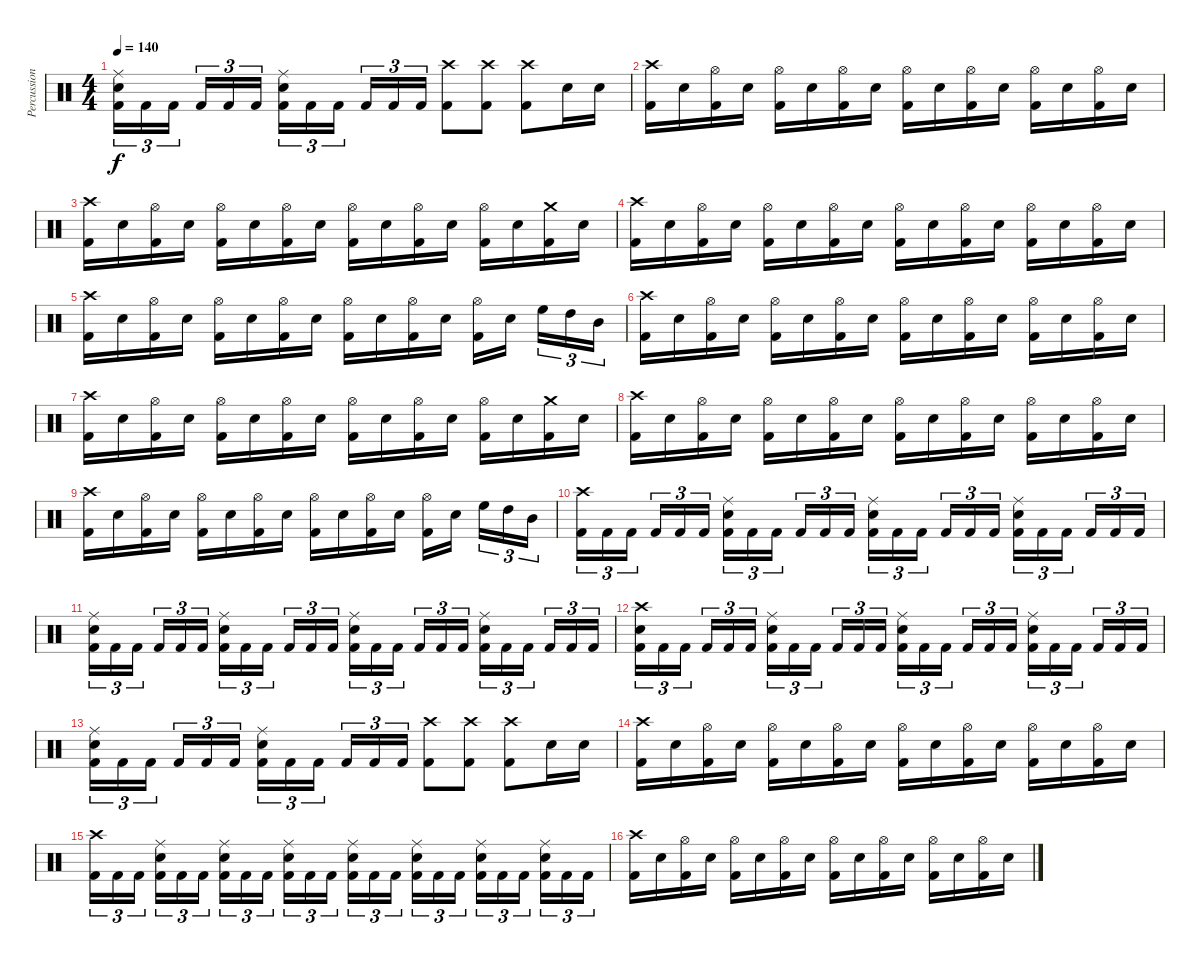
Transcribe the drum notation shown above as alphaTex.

\track ("Percussion" "Percussion") {instrument percussion}
\staff {score}
\articulation defaults
\ts (4 4)
\tempo 140
\clef neutral
\ks c
("Ride (middle)" "Electric Snare (hit)" "Kick (hit) 2").16{tu (3 2) dy f} "Kick (hit) 2".16{tu (3 2)} "Kick (hit) 2".16{tu (3 2)} "Kick (hit) 2".16{tu (3 2)} "Kick (hit) 2".16{tu (3 2)} "Kick (hit) 2".16{tu (3 2)} ("Ride (middle)" "Electric Snare (hit)" "Kick (hit) 2").16{tu (3 2)} "Kick (hit) 2".16{tu (3 2)} "Kick (hit) 2".16{tu (3 2)} "Kick (hit) 2".16{tu (3 2)} "Kick (hit) 2".16{tu (3 2)} "Kick (hit) 2".16{tu (3 2)} ("Crash high (hit)" "Kick (hit) 2").8 ("Crash high (hit)" "Kick (hit) 2").8 ("Crash high (hit)" "Kick (hit) 2").8 "Electric Snare (hit)".16 "Electric Snare (hit)".16 |
("Crash high (hit)" "Kick (hit) 2").16 "Electric Snare (hit)".16 ("Hi-Hat (open)" "Kick (hit) 2").16 "Electric Snare (hit)".16 ("Hi-Hat (open)" "Kick (hit) 2").16 "Electric Snare (hit)".16 ("Hi-Hat (open)" "Kick (hit) 2").16 "Electric Snare (hit)".16 ("Hi-Hat (open)" "Kick (hit) 2").16 "Electric Snare (hit)".16 ("Hi-Hat (open)" "Kick (hit) 2").16 "Electric Snare (hit)".16 ("Hi-Hat (open)" "Kick (hit) 2").16 "Electric Snare (hit)".16 ("Hi-Hat (open)" "Kick (hit) 2").16 "Electric Snare (hit)".16 |
("Crash high (hit)" "Kick (hit) 2").16 "Electric Snare (hit)".16 ("Hi-Hat (open)" "Kick (hit) 2").16 "Electric Snare (hit)".16 ("Hi-Hat (open)" "Kick (hit) 2").16 "Electric Snare (hit)".16 ("Hi-Hat (open)" "Kick (hit) 2").16 "Electric Snare (hit)".16 ("Hi-Hat (open)" "Kick (hit) 2").16 "Electric Snare (hit)".16 ("Hi-Hat (open)" "Kick (hit) 2").16 "Electric Snare (hit)".16 ("Hi-Hat (open)" "Kick (hit) 2").16 "Electric Snare (hit)".16 ("Crash medium (hit)" "Kick (hit) 2").16 "Electric Snare (hit)".16 |
("Crash high (hit)" "Kick (hit) 2").16 "Electric Snare (hit)".16 ("Hi-Hat (open)" "Kick (hit) 2").16 "Electric Snare (hit)".16 ("Hi-Hat (open)" "Kick (hit) 2").16 "Electric Snare (hit)".16 ("Hi-Hat (open)" "Kick (hit) 2").16 "Electric Snare (hit)".16 ("Hi-Hat (open)" "Kick (hit) 2").16 "Electric Snare (hit)".16 ("Hi-Hat (open)" "Kick (hit) 2").16 "Electric Snare (hit)".16 ("Hi-Hat (open)" "Kick (hit) 2").16 "Electric Snare (hit)".16 ("Hi-Hat (open)" "Kick (hit) 2").16 "Electric Snare (hit)".16 |
("Crash high (hit)" "Kick (hit) 2").16 "Electric Snare (hit)".16 ("Hi-Hat (open)" "Kick (hit) 2").16 "Electric Snare (hit)".16 ("Hi-Hat (open)" "Kick (hit) 2").16 "Electric Snare (hit)".16 ("Hi-Hat (open)" "Kick (hit) 2").16 "Electric Snare (hit)".16 ("Hi-Hat (open)" "Kick (hit) 2").16 "Electric Snare (hit)".16 ("Hi-Hat (open)" "Kick (hit) 2").16 "Electric Snare (hit)".16 ("Hi-Hat (open)" "Kick (hit) 2").16 "Electric Snare (hit)".16 "High Floor Tom (hit)".16{tu (3 2)} "High Tom (hit)".16{tu (3 2)} "Mid Tom (hit)".16{tu (3 2)} |
("Crash high (hit)" "Kick (hit) 2").16 "Electric Snare (hit)".16 ("Hi-Hat (open)" "Kick (hit) 2").16 "Electric Snare (hit)".16 ("Hi-Hat (open)" "Kick (hit) 2").16 "Electric Snare (hit)".16 ("Hi-Hat (open)" "Kick (hit) 2").16 "Electric Snare (hit)".16 ("Hi-Hat (open)" "Kick (hit) 2").16 "Electric Snare (hit)".16 ("Hi-Hat (open)" "Kick (hit) 2").16 "Electric Snare (hit)".16 ("Hi-Hat (open)" "Kick (hit) 2").16 "Electric Snare (hit)".16 ("Hi-Hat (open)" "Kick (hit) 2").16 "Electric Snare (hit)".16 |
("Crash high (hit)" "Kick (hit) 2").16 "Electric Snare (hit)".16 ("Hi-Hat (open)" "Kick (hit) 2").16 "Electric Snare (hit)".16 ("Hi-Hat (open)" "Kick (hit) 2").16 "Electric Snare (hit)".16 ("Hi-Hat (open)" "Kick (hit) 2").16 "Electric Snare (hit)".16 ("Hi-Hat (open)" "Kick (hit) 2").16 "Electric Snare (hit)".16 ("Hi-Hat (open)" "Kick (hit) 2").16 "Electric Snare (hit)".16 ("Hi-Hat (open)" "Kick (hit) 2").16 "Electric Snare (hit)".16 ("Crash medium (hit)" "Kick (hit) 2").16 "Electric Snare (hit)".16 |
("Crash high (hit)" "Kick (hit) 2").16 "Electric Snare (hit)".16 ("Hi-Hat (open)" "Kick (hit) 2").16 "Electric Snare (hit)".16 ("Hi-Hat (open)" "Kick (hit) 2").16 "Electric Snare (hit)".16 ("Hi-Hat (open)" "Kick (hit) 2").16 "Electric Snare (hit)".16 ("Hi-Hat (open)" "Kick (hit) 2").16 "Electric Snare (hit)".16 ("Hi-Hat (open)" "Kick (hit) 2").16 "Electric Snare (hit)".16 ("Hi-Hat (open)" "Kick (hit) 2").16 "Electric Snare (hit)".16 ("Hi-Hat (open)" "Kick (hit) 2").16 "Electric Snare (hit)".16 |
("Crash high (hit)" "Kick (hit) 2").16 "Electric Snare (hit)".16 ("Hi-Hat (open)" "Kick (hit) 2").16 "Electric Snare (hit)".16 ("Hi-Hat (open)" "Kick (hit) 2").16 "Electric Snare (hit)".16 ("Hi-Hat (open)" "Kick (hit) 2").16 "Electric Snare (hit)".16 ("Hi-Hat (open)" "Kick (hit) 2").16 "Electric Snare (hit)".16 ("Hi-Hat (open)" "Kick (hit) 2").16 "Electric Snare (hit)".16 ("Hi-Hat (open)" "Kick (hit) 2").16 "Electric Snare (hit)".16 "High Floor Tom (hit)".16{tu (3 2)} "High Tom (hit)".16{tu (3 2)} "Mid Tom (hit)".16{tu (3 2)} |
("Crash high (hit)" "Kick (hit) 2").16{tu (3 2)} "Kick (hit) 2".16{tu (3 2)} "Kick (hit) 2".16{tu (3 2)} "Kick (hit) 2".16{tu (3 2)} "Kick (hit) 2".16{tu (3 2)} "Kick (hit) 2".16{tu (3 2)} ("Ride (middle)" "Electric Snare (hit)" "Kick (hit) 2").16{tu (3 2)} "Kick (hit) 2".16{tu (3 2)} "Kick (hit) 2".16{tu (3 2)} "Kick (hit) 2".16{tu (3 2)} "Kick (hit) 2".16{tu (3 2)} "Kick (hit) 2".16{tu (3 2)} ("Ride (middle)" "Electric Snare (hit)" "Kick (hit) 2").16{tu (3 2)} "Kick (hit) 2".16{tu (3 2)} "Kick (hit) 2".16{tu (3 2)} "Kick (hit) 2".16{tu (3 2)} "Kick (hit) 2".16{tu (3 2)} "Kick (hit) 2".16{tu (3 2)} ("Ride (middle)" "Electric Snare (hit)" "Kick (hit) 2").16{tu (3 2)} "Kick (hit) 2".16{tu (3 2)} "Kick (hit) 2".16{tu (3 2)} "Kick (hit) 2".16{tu (3 2)} "Kick (hit) 2".16{tu (3 2)} "Kick (hit) 2".16{tu (3 2)} |
("Ride (middle)" "Electric Snare (hit)" "Kick (hit) 2").16{tu (3 2)} "Kick (hit) 2".16{tu (3 2)} "Kick (hit) 2".16{tu (3 2)} "Kick (hit) 2".16{tu (3 2)} "Kick (hit) 2".16{tu (3 2)} "Kick (hit) 2".16{tu (3 2)} ("Ride (middle)" "Electric Snare (hit)" "Kick (hit) 2").16{tu (3 2)} "Kick (hit) 2".16{tu (3 2)} "Kick (hit) 2".16{tu (3 2)} "Kick (hit) 2".16{tu (3 2)} "Kick (hit) 2".16{tu (3 2)} "Kick (hit) 2".16{tu (3 2)} ("Ride (middle)" "Electric Snare (hit)" "Kick (hit) 2").16{tu (3 2)} "Kick (hit) 2".16{tu (3 2)} "Kick (hit) 2".16{tu (3 2)} "Kick (hit) 2".16{tu (3 2)} "Kick (hit) 2".16{tu (3 2)} "Kick (hit) 2".16{tu (3 2)} ("Ride (middle)" "Electric Snare (hit)" "Kick (hit) 2").16{tu (3 2)} "Kick (hit) 2".16{tu (3 2)} "Kick (hit) 2".16{tu (3 2)} "Kick (hit) 2".16{tu (3 2)} "Kick (hit) 2".16{tu (3 2)} "Kick (hit) 2".16{tu (3 2)} |
("Crash high (hit)" "Electric Snare (hit)" "Kick (hit) 2").16{tu (3 2)} "Kick (hit) 2".16{tu (3 2)} "Kick (hit) 2".16{tu (3 2)} "Kick (hit) 2".16{tu (3 2)} "Kick (hit) 2".16{tu (3 2)} "Kick (hit) 2".16{tu (3 2)} ("Ride (middle)" "Electric Snare (hit)" "Kick (hit) 2").16{tu (3 2)} "Kick (hit) 2".16{tu (3 2)} "Kick (hit) 2".16{tu (3 2)} "Kick (hit) 2".16{tu (3 2)} "Kick (hit) 2".16{tu (3 2)} "Kick (hit) 2".16{tu (3 2)} ("Ride (middle)" "Electric Snare (hit)" "Kick (hit) 2").16{tu (3 2)} "Kick (hit) 2".16{tu (3 2)} "Kick (hit) 2".16{tu (3 2)} "Kick (hit) 2".16{tu (3 2)} "Kick (hit) 2".16{tu (3 2)} "Kick (hit) 2".16{tu (3 2)} ("Ride (middle)" "Electric Snare (hit)" "Kick (hit) 2").16{tu (3 2)} "Kick (hit) 2".16{tu (3 2)} "Kick (hit) 2".16{tu (3 2)} "Kick (hit) 2".16{tu (3 2)} "Kick (hit) 2".16{tu (3 2)} "Kick (hit) 2".16{tu (3 2)} |
("Ride (middle)" "Electric Snare (hit)" "Kick (hit) 2").16{tu (3 2)} "Kick (hit) 2".16{tu (3 2)} "Kick (hit) 2".16{tu (3 2)} "Kick (hit) 2".16{tu (3 2)} "Kick (hit) 2".16{tu (3 2)} "Kick (hit) 2".16{tu (3 2)} ("Ride (middle)" "Electric Snare (hit)" "Kick (hit) 2").16{tu (3 2)} "Kick (hit) 2".16{tu (3 2)} "Kick (hit) 2".16{tu (3 2)} "Kick (hit) 2".16{tu (3 2)} "Kick (hit) 2".16{tu (3 2)} "Kick (hit) 2".16{tu (3 2)} ("Crash high (hit)" "Kick (hit) 2").8 ("Crash high (hit)" "Kick (hit) 2").8 ("Crash high (hit)" "Kick (hit) 2").8 "Electric Snare (hit)".16 "Electric Snare (hit)".16 |
("Crash high (hit)" "Kick (hit) 2").16 "Electric Snare (hit)".16 ("Hi-Hat (open)" "Kick (hit) 2").16 "Electric Snare (hit)".16 ("Hi-Hat (open)" "Kick (hit) 2").16 "Electric Snare (hit)".16 ("Hi-Hat (open)" "Kick (hit) 2").16 "Electric Snare (hit)".16 ("Hi-Hat (open)" "Kick (hit) 2").16 "Electric Snare (hit)".16 ("Hi-Hat (open)" "Kick (hit) 2").16 "Electric Snare (hit)".16 ("Hi-Hat (open)" "Kick (hit) 2").16 "Electric Snare (hit)".16 ("Hi-Hat (open)" "Kick (hit) 2").16 "Electric Snare (hit)".16 |
("Crash high (hit)" "Kick (hit) 2").16{tu (3 2)} "Kick (hit) 2".16{tu (3 2)} "Kick (hit) 2".16{tu (3 2)} ("Ride (middle)" "Electric Snare (hit)" "Kick (hit) 2").16{tu (3 2)} "Kick (hit) 2".16{tu (3 2)} "Kick (hit) 2".16{tu (3 2)} ("Ride (middle)" "Electric Snare (hit)" "Kick (hit) 2").16{tu (3 2)} "Kick (hit) 2".16{tu (3 2)} "Kick (hit) 2".16{tu (3 2)} ("Ride (middle)" "Electric Snare (hit)" "Kick (hit) 2").16{tu (3 2)} "Kick (hit) 2".16{tu (3 2)} "Kick (hit) 2".16{tu (3 2)} ("Ride (middle)" "Electric Snare (hit)" "Kick (hit) 2").16{tu (3 2)} "Kick (hit) 2".16{tu (3 2)} "Kick (hit) 2".16{tu (3 2)} ("Ride (middle)" "Electric Snare (hit)" "Kick (hit) 2").16{tu (3 2)} "Kick (hit) 2".16{tu (3 2)} "Kick (hit) 2".16{tu (3 2)} ("Ride (middle)" "Electric Snare (hit)" "Kick (hit) 2").16{tu (3 2)} "Kick (hit) 2".16{tu (3 2)} "Kick (hit) 2".16{tu (3 2)} ("Ride (middle)" "Electric Snare (hit)" "Kick (hit) 2").16{tu (3 2)} "Kick (hit) 2".16{tu (3 2)} "Kick (hit) 2".16{tu (3 2)} |
("Crash high (hit)" "Kick (hit) 2").16 "Electric Snare (hit)".16 ("Hi-Hat (open)" "Kick (hit) 2").16 "Electric Snare (hit)".16 ("Hi-Hat (open)" "Kick (hit) 2").16 "Electric Snare (hit)".16 ("Hi-Hat (open)" "Kick (hit) 2").16 "Electric Snare (hit)".16 ("Hi-Hat (open)" "Kick (hit) 2").16 "Electric Snare (hit)".16 ("Hi-Hat (open)" "Kick (hit) 2").16 "Electric Snare (hit)".16 ("Hi-Hat (open)" "Kick (hit) 2").16 "Electric Snare (hit)".16 ("Hi-Hat (open)" "Kick (hit) 2").16 "Electric Snare (hit)".16
